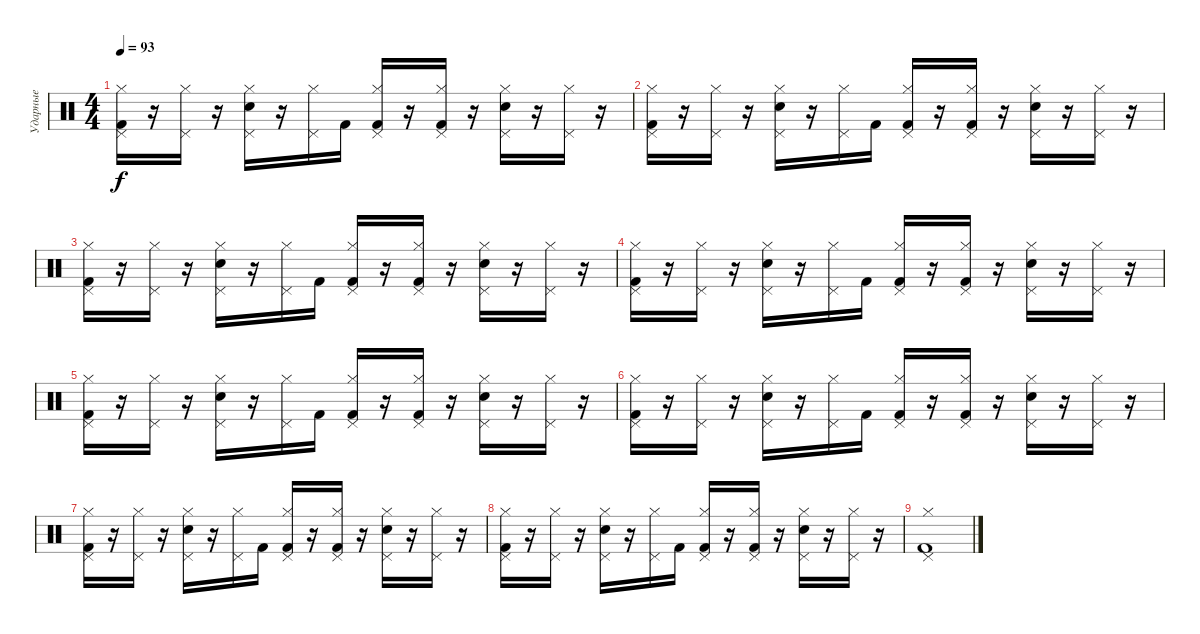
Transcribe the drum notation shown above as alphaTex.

\track ("Ударные" "Ударные") {instrument percussion}
\staff {score}
\articulation defaults
\ts (4 4)
\tempo 93
\clef neutral
\ks c
("Kick (hit) 2" "Hi-Hat (closed)" "Pedal Hi-Hat (hit)").16{dy f} r.16 ("Hi-Hat (closed)" "Pedal Hi-Hat (hit)").16 r.16 ("Snare (hit) 2" "Hi-Hat (closed)" "Pedal Hi-Hat (hit)").16 r.16 ("Hi-Hat (closed)" "Pedal Hi-Hat (hit)").16 "Kick (hit) 2".16 ("Kick (hit) 2" "Hi-Hat (closed)" "Pedal Hi-Hat (hit)").16 r.16 ("Kick (hit) 2" "Hi-Hat (closed)" "Pedal Hi-Hat (hit)").16 r.16 ("Snare (hit) 2" "Hi-Hat (closed)" "Pedal Hi-Hat (hit)").16 r.16 ("Hi-Hat (closed)" "Pedal Hi-Hat (hit)").16 r.16 |
("Kick (hit) 2" "Hi-Hat (closed)" "Pedal Hi-Hat (hit)").16 r.16 ("Hi-Hat (closed)" "Pedal Hi-Hat (hit)").16 r.16 ("Snare (hit) 2" "Hi-Hat (closed)" "Pedal Hi-Hat (hit)").16 r.16 ("Hi-Hat (closed)" "Pedal Hi-Hat (hit)").16 "Kick (hit) 2".16 ("Kick (hit) 2" "Hi-Hat (closed)" "Pedal Hi-Hat (hit)").16 r.16 ("Kick (hit) 2" "Hi-Hat (closed)" "Pedal Hi-Hat (hit)").16 r.16 ("Snare (hit) 2" "Hi-Hat (closed)" "Pedal Hi-Hat (hit)").16 r.16 ("Hi-Hat (closed)" "Pedal Hi-Hat (hit)").16 r.16 |
("Kick (hit) 2" "Hi-Hat (closed)" "Pedal Hi-Hat (hit)").16 r.16 ("Hi-Hat (closed)" "Pedal Hi-Hat (hit)").16 r.16 ("Snare (hit) 2" "Hi-Hat (closed)" "Pedal Hi-Hat (hit)").16 r.16 ("Hi-Hat (closed)" "Pedal Hi-Hat (hit)").16 "Kick (hit) 2".16 ("Kick (hit) 2" "Hi-Hat (closed)" "Pedal Hi-Hat (hit)").16 r.16 ("Kick (hit) 2" "Hi-Hat (closed)" "Pedal Hi-Hat (hit)").16 r.16 ("Snare (hit) 2" "Hi-Hat (closed)" "Pedal Hi-Hat (hit)").16 r.16 ("Hi-Hat (closed)" "Pedal Hi-Hat (hit)").16 r.16 |
("Kick (hit) 2" "Hi-Hat (closed)" "Pedal Hi-Hat (hit)").16 r.16 ("Hi-Hat (closed)" "Pedal Hi-Hat (hit)").16 r.16 ("Snare (hit) 2" "Hi-Hat (closed)" "Pedal Hi-Hat (hit)").16 r.16 ("Hi-Hat (closed)" "Pedal Hi-Hat (hit)").16 "Kick (hit) 2".16 ("Kick (hit) 2" "Hi-Hat (closed)" "Pedal Hi-Hat (hit)").16 r.16 ("Kick (hit) 2" "Hi-Hat (closed)" "Pedal Hi-Hat (hit)").16 r.16 ("Snare (hit) 2" "Hi-Hat (closed)" "Pedal Hi-Hat (hit)").16 r.16 ("Hi-Hat (closed)" "Pedal Hi-Hat (hit)").16 r.16 |
("Kick (hit) 2" "Hi-Hat (closed)" "Pedal Hi-Hat (hit)").16 r.16 ("Hi-Hat (closed)" "Pedal Hi-Hat (hit)").16 r.16 ("Snare (hit) 2" "Hi-Hat (closed)" "Pedal Hi-Hat (hit)").16 r.16 ("Hi-Hat (closed)" "Pedal Hi-Hat (hit)").16 "Kick (hit) 2".16 ("Kick (hit) 2" "Hi-Hat (closed)" "Pedal Hi-Hat (hit)").16 r.16 ("Kick (hit) 2" "Hi-Hat (closed)" "Pedal Hi-Hat (hit)").16 r.16 ("Snare (hit) 2" "Hi-Hat (closed)" "Pedal Hi-Hat (hit)").16 r.16 ("Hi-Hat (closed)" "Pedal Hi-Hat (hit)").16 r.16 |
("Kick (hit) 2" "Hi-Hat (closed)" "Pedal Hi-Hat (hit)").16 r.16 ("Hi-Hat (closed)" "Pedal Hi-Hat (hit)").16 r.16 ("Snare (hit) 2" "Hi-Hat (closed)" "Pedal Hi-Hat (hit)").16 r.16 ("Hi-Hat (closed)" "Pedal Hi-Hat (hit)").16 "Kick (hit) 2".16 ("Kick (hit) 2" "Hi-Hat (closed)" "Pedal Hi-Hat (hit)").16 r.16 ("Kick (hit) 2" "Hi-Hat (closed)" "Pedal Hi-Hat (hit)").16 r.16 ("Snare (hit) 2" "Hi-Hat (closed)" "Pedal Hi-Hat (hit)").16 r.16 ("Hi-Hat (closed)" "Pedal Hi-Hat (hit)").16 r.16 |
("Kick (hit) 2" "Hi-Hat (closed)" "Pedal Hi-Hat (hit)").16 r.16 ("Hi-Hat (closed)" "Pedal Hi-Hat (hit)").16 r.16 ("Snare (hit) 2" "Hi-Hat (closed)" "Pedal Hi-Hat (hit)").16 r.16 ("Hi-Hat (closed)" "Pedal Hi-Hat (hit)").16 "Kick (hit) 2".16 ("Kick (hit) 2" "Hi-Hat (closed)" "Pedal Hi-Hat (hit)").16 r.16 ("Kick (hit) 2" "Hi-Hat (closed)" "Pedal Hi-Hat (hit)").16 r.16 ("Snare (hit) 2" "Hi-Hat (closed)" "Pedal Hi-Hat (hit)").16 r.16 ("Hi-Hat (closed)" "Pedal Hi-Hat (hit)").16 r.16 |
("Kick (hit) 2" "Hi-Hat (closed)" "Pedal Hi-Hat (hit)").16 r.16 ("Hi-Hat (closed)" "Pedal Hi-Hat (hit)").16 r.16 ("Snare (hit) 2" "Hi-Hat (closed)" "Pedal Hi-Hat (hit)").16 r.16 ("Hi-Hat (closed)" "Pedal Hi-Hat (hit)").16 "Kick (hit) 2".16 ("Kick (hit) 2" "Hi-Hat (closed)" "Pedal Hi-Hat (hit)").16 r.16 ("Kick (hit) 2" "Hi-Hat (closed)" "Pedal Hi-Hat (hit)").16 r.16 ("Snare (hit) 2" "Hi-Hat (closed)" "Pedal Hi-Hat (hit)").16 r.16 ("Hi-Hat (closed)" "Pedal Hi-Hat (hit)").16 r.16 |
("Kick (hit) 2" "Hi-Hat (closed)" "Pedal Hi-Hat (hit)").1
